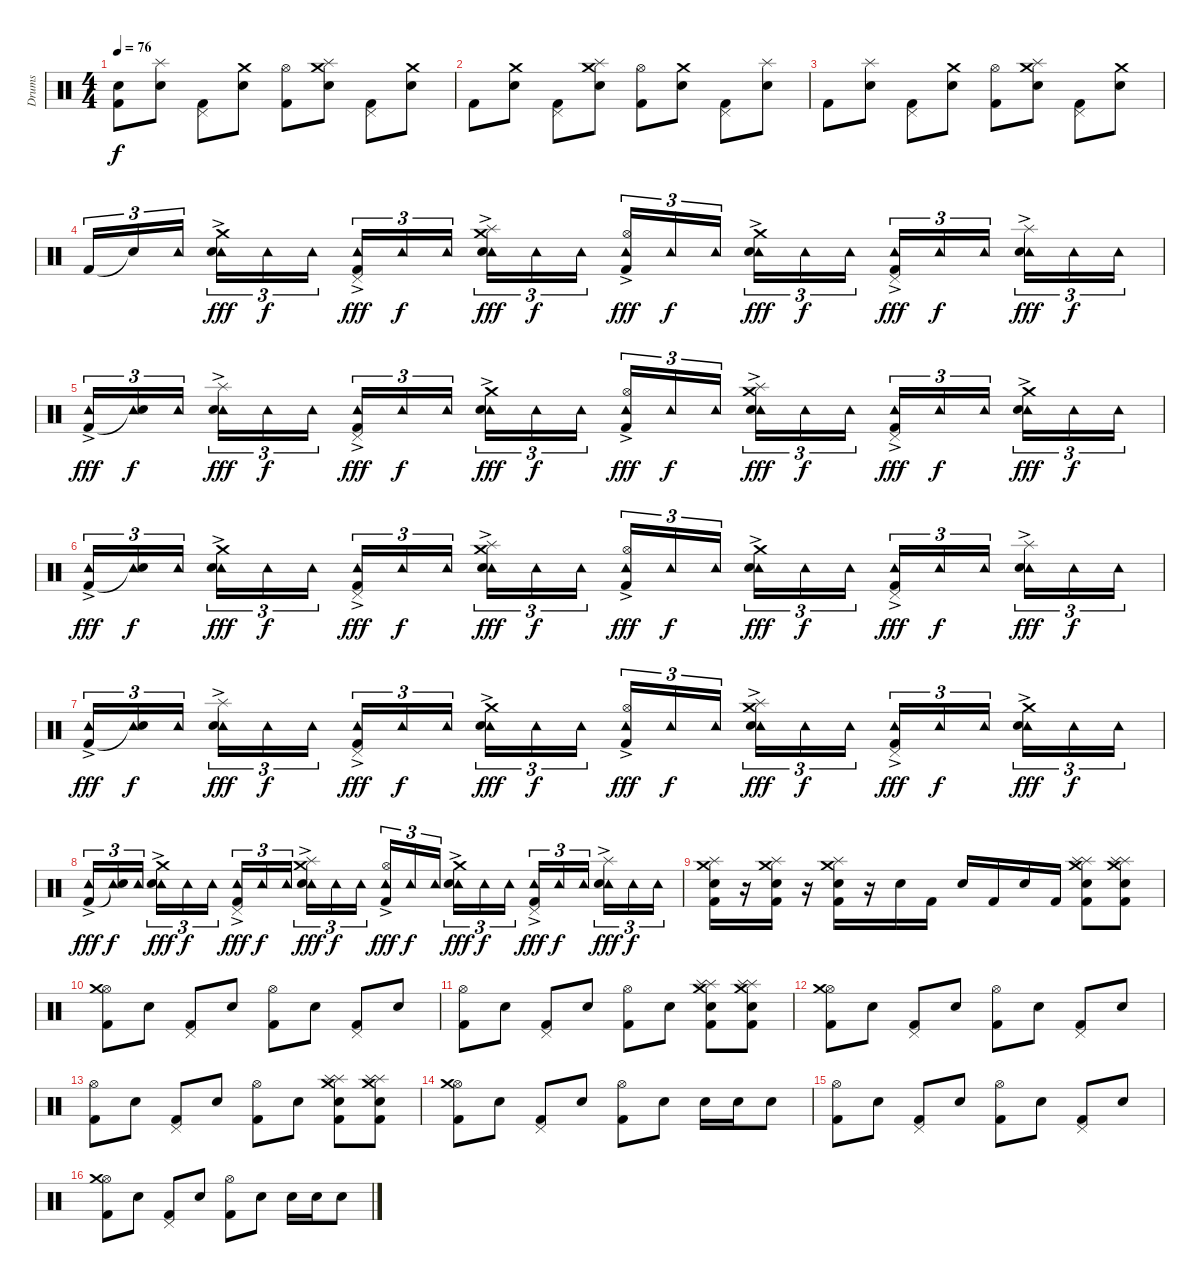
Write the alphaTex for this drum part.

\track ("Drums" "Drums") {instrument percussion}
\staff {score}
\articulation defaults
\ts (4 4)
\tempo 76
\clef neutral
\ks c
("Kick (hit) 2"{t} "Snare (hit)"{t}).8{dy f} ("Snare (hit) 2" "Splash (hit)").8 ("Kick (hit) 2" "Pedal Hi-Hat (hit)").8 ("Snare (hit) 2" "Crash medium (hit)").8 ("Kick (hit) 2" "Hi-Hat (open)").8 ("Snare (hit) 2" "Crash medium (hit)" "Splash (hit)").8 ("Kick (hit) 2" "Pedal Hi-Hat (hit)").8 ("Snare (hit) 2" "Crash medium (hit)").8 |
"Kick (hit) 2".8 ("Snare (hit) 2" "Crash medium (hit)").8 ("Kick (hit) 2" "Pedal Hi-Hat (hit)").8 ("Snare (hit) 2" "Splash (hit)" "Crash medium (hit)").8 ("Kick (hit) 2" "Hi-Hat (open)").8 ("Snare (hit) 2" "Crash medium (hit)").8 ("Kick (hit) 2" "Pedal Hi-Hat (hit)").8 ("Snare (hit) 2" "Splash (hit)").8 |
"Kick (hit) 2".8 ("Snare (hit) 2" "Splash (hit)").8 ("Kick (hit) 2" "Pedal Hi-Hat (hit)").8 ("Snare (hit) 2" "Crash medium (hit)").8 ("Kick (hit) 2" "Hi-Hat (open)").8 ("Snare (hit) 2" "Crash medium (hit)" "Splash (hit)").8 ("Kick (hit) 2" "Pedal Hi-Hat (hit)").8 ("Snare (hit) 2" "Crash medium (hit)").8 |
"Kick (hit) 2".16{tu (3 2)} "Snare (hit)"{t}.16{tu (3 2)} "Tambourine (hit)".16{tu (3 2)} ("Tambourine (hit)"{ac} "Snare (hit) 2" "Crash medium (hit)").16{tu (3 2) dy fff} "Tambourine (hit)".16{tu (3 2) dy f} "Tambourine (hit)".16{tu (3 2)} ("Tambourine (hit)"{ac} "Kick (hit) 2" "Pedal Hi-Hat (hit)").16{tu (3 2) dy fff} "Tambourine (hit)".16{tu (3 2) dy f} "Tambourine (hit)".16{tu (3 2)} ("Tambourine (hit)"{ac} "Snare (hit) 2" "Splash (hit)" "Crash medium (hit)").16{tu (3 2) dy fff} "Tambourine (hit)".16{tu (3 2) dy f} "Tambourine (hit)".16{tu (3 2)} ("Tambourine (hit)"{ac} "Kick (hit) 2" "Hi-Hat (open)").16{tu (3 2) dy fff} "Tambourine (hit)".16{tu (3 2) dy f} "Tambourine (hit)".16{tu (3 2)} ("Tambourine (hit)"{ac} "Snare (hit) 2" "Crash medium (hit)").16{tu (3 2) dy fff} "Tambourine (hit)".16{tu (3 2) dy f} "Tambourine (hit)".16{tu (3 2)} ("Tambourine (hit)"{ac} "Kick (hit) 2" "Pedal Hi-Hat (hit)").16{tu (3 2) dy fff} "Tambourine (hit)".16{tu (3 2) dy f} "Tambourine (hit)".16{tu (3 2)} ("Tambourine (hit)"{ac} "Snare (hit) 2" "Splash (hit)").16{tu (3 2) dy fff} "Tambourine (hit)".16{tu (3 2) dy f} "Tambourine (hit)".16{tu (3 2)} |
("Tambourine (hit)"{ac} "Kick (hit) 2").16{tu (3 2) dy fff} ("Tambourine (hit)" "Snare (hit)"{t}).16{tu (3 2) dy f} "Tambourine (hit)".16{tu (3 2)} ("Tambourine (hit)"{ac} "Snare (hit) 2" "Splash (hit)").16{tu (3 2) dy fff} "Tambourine (hit)".16{tu (3 2) dy f} "Tambourine (hit)".16{tu (3 2)} ("Tambourine (hit)"{ac} "Kick (hit) 2" "Pedal Hi-Hat (hit)").16{tu (3 2) dy fff} "Tambourine (hit)".16{tu (3 2) dy f} "Tambourine (hit)".16{tu (3 2)} ("Tambourine (hit)"{ac} "Snare (hit) 2" "Crash medium (hit)").16{tu (3 2) dy fff} "Tambourine (hit)".16{tu (3 2) dy f} "Tambourine (hit)".16{tu (3 2)} ("Tambourine (hit)"{ac} "Kick (hit) 2" "Hi-Hat (open)").16{tu (3 2) dy fff} "Tambourine (hit)".16{tu (3 2) dy f} "Tambourine (hit)".16{tu (3 2)} ("Tambourine (hit)"{ac} "Snare (hit) 2" "Crash medium (hit)" "Splash (hit)").16{tu (3 2) dy fff} "Tambourine (hit)".16{tu (3 2) dy f} "Tambourine (hit)".16{tu (3 2)} ("Tambourine (hit)"{ac} "Kick (hit) 2" "Pedal Hi-Hat (hit)").16{tu (3 2) dy fff} "Tambourine (hit)".16{tu (3 2) dy f} "Tambourine (hit)".16{tu (3 2)} ("Tambourine (hit)"{ac} "Snare (hit) 2" "Crash medium (hit)").16{tu (3 2) dy fff} "Tambourine (hit)".16{tu (3 2) dy f} "Tambourine (hit)".16{tu (3 2)} |
("Tambourine (hit)"{ac} "Kick (hit) 2").16{tu (3 2) dy fff} ("Tambourine (hit)" "Snare (hit)"{t}).16{tu (3 2) dy f} "Tambourine (hit)".16{tu (3 2)} ("Tambourine (hit)"{ac} "Snare (hit) 2" "Crash medium (hit)").16{tu (3 2) dy fff} "Tambourine (hit)".16{tu (3 2) dy f} "Tambourine (hit)".16{tu (3 2)} ("Tambourine (hit)"{ac} "Kick (hit) 2" "Pedal Hi-Hat (hit)").16{tu (3 2) dy fff} "Tambourine (hit)".16{tu (3 2) dy f} "Tambourine (hit)".16{tu (3 2)} ("Tambourine (hit)"{ac} "Snare (hit) 2" "Splash (hit)" "Crash medium (hit)").16{tu (3 2) dy fff} "Tambourine (hit)".16{tu (3 2) dy f} "Tambourine (hit)".16{tu (3 2)} ("Tambourine (hit)"{ac} "Kick (hit) 2" "Hi-Hat (open)").16{tu (3 2) dy fff} "Tambourine (hit)".16{tu (3 2) dy f} "Tambourine (hit)".16{tu (3 2)} ("Tambourine (hit)"{ac} "Snare (hit) 2" "Crash medium (hit)").16{tu (3 2) dy fff} "Tambourine (hit)".16{tu (3 2) dy f} "Tambourine (hit)".16{tu (3 2)} ("Tambourine (hit)"{ac} "Kick (hit) 2" "Pedal Hi-Hat (hit)").16{tu (3 2) dy fff} "Tambourine (hit)".16{tu (3 2) dy f} "Tambourine (hit)".16{tu (3 2)} ("Tambourine (hit)"{ac} "Snare (hit) 2" "Splash (hit)").16{tu (3 2) dy fff} "Tambourine (hit)".16{tu (3 2) dy f} "Tambourine (hit)".16{tu (3 2)} |
("Tambourine (hit)"{ac} "Kick (hit) 2").16{tu (3 2) dy fff} ("Tambourine (hit)" "Snare (hit)"{t}).16{tu (3 2) dy f} "Tambourine (hit)".16{tu (3 2)} ("Tambourine (hit)"{ac} "Snare (hit) 2" "Splash (hit)").16{tu (3 2) dy fff} "Tambourine (hit)".16{tu (3 2) dy f} "Tambourine (hit)".16{tu (3 2)} ("Tambourine (hit)"{ac} "Kick (hit) 2" "Pedal Hi-Hat (hit)").16{tu (3 2) dy fff} "Tambourine (hit)".16{tu (3 2) dy f} "Tambourine (hit)".16{tu (3 2)} ("Tambourine (hit)"{ac} "Snare (hit) 2" "Crash medium (hit)").16{tu (3 2) dy fff} "Tambourine (hit)".16{tu (3 2) dy f} "Tambourine (hit)".16{tu (3 2)} ("Tambourine (hit)"{ac} "Kick (hit) 2" "Hi-Hat (open)").16{tu (3 2) dy fff} "Tambourine (hit)".16{tu (3 2) dy f} "Tambourine (hit)".16{tu (3 2)} ("Tambourine (hit)"{ac} "Snare (hit) 2" "Crash medium (hit)" "Splash (hit)").16{tu (3 2) dy fff} "Tambourine (hit)".16{tu (3 2) dy f} "Tambourine (hit)".16{tu (3 2)} ("Tambourine (hit)"{ac} "Kick (hit) 2" "Pedal Hi-Hat (hit)").16{tu (3 2) dy fff} "Tambourine (hit)".16{tu (3 2) dy f} "Tambourine (hit)".16{tu (3 2)} ("Tambourine (hit)"{ac} "Snare (hit) 2" "Crash medium (hit)").16{tu (3 2) dy fff} "Tambourine (hit)".16{tu (3 2) dy f} "Tambourine (hit)".16{tu (3 2)} |
("Tambourine (hit)"{ac} "Kick (hit) 2").16{tu (3 2) dy fff} ("Tambourine (hit)" "Snare (hit)"{t}).16{tu (3 2) dy f} "Tambourine (hit)".16{tu (3 2)} ("Tambourine (hit)"{ac} "Snare (hit) 2" "Crash medium (hit)").16{tu (3 2) dy fff} "Tambourine (hit)".16{tu (3 2) dy f} "Tambourine (hit)".16{tu (3 2)} ("Tambourine (hit)"{ac} "Kick (hit) 2" "Pedal Hi-Hat (hit)").16{tu (3 2) dy fff} "Tambourine (hit)".16{tu (3 2) dy f} "Tambourine (hit)".16{tu (3 2)} ("Tambourine (hit)"{ac} "Snare (hit) 2" "Splash (hit)" "Crash medium (hit)").16{tu (3 2) dy fff} "Tambourine (hit)".16{tu (3 2) dy f} "Tambourine (hit)".16{tu (3 2)} ("Tambourine (hit)"{ac} "Kick (hit) 2" "Hi-Hat (open)").16{tu (3 2) dy fff} "Tambourine (hit)".16{tu (3 2) dy f} "Tambourine (hit)".16{tu (3 2)} ("Tambourine (hit)"{ac} "Snare (hit) 2" "Crash medium (hit)").16{tu (3 2) dy fff} "Tambourine (hit)".16{tu (3 2) dy f} "Tambourine (hit)".16{tu (3 2)} ("Tambourine (hit)"{ac} "Kick (hit) 2" "Pedal Hi-Hat (hit)").16{tu (3 2) dy fff} "Tambourine (hit)".16{tu (3 2) dy f} "Tambourine (hit)".16{tu (3 2)} ("Tambourine (hit)"{ac} "Snare (hit) 2" "Splash (hit)").16{tu (3 2) dy fff} "Tambourine (hit)".16{tu (3 2) dy f} "Tambourine (hit)".16{tu (3 2)} |
("Snare (hit) 2" "Splash (hit)" "Crash medium (hit)" "Kick (hit) 2").16 r.16 ("Snare (hit) 2" "Splash (hit)" "Crash medium (hit)" "Kick (hit) 2").16 r.16 ("Snare (hit) 2" "Splash (hit)" "Crash medium (hit)" "Kick (hit) 2").16 r.16 "Snare (hit) 2".16{volume 14} "Kick (hit) 2".16 "Snare (hit) 2".16 "Kick (hit) 2".16 "Snare (hit) 2".16 "Kick (hit) 2".16 ("Kick (hit) 2" "Snare (hit) 2" "Splash (hit)" "Splash (hit)" "Crash medium (hit)").8 ("Kick (hit) 2" "Snare (hit) 2" "Splash (hit)" "Splash (hit)" "Crash medium (hit)").8 |
("Kick (hit) 2" "Hi-Hat (open)" "Crash medium (hit)").8 "Snare (hit) 2".8 ("Kick (hit) 2" "Pedal Hi-Hat (hit)").8 "Snare (hit) 2".8 ("Kick (hit) 2" "Hi-Hat (open)").8 "Snare (hit) 2".8 ("Kick (hit) 2" "Pedal Hi-Hat (hit)").8 "Snare (hit) 2".8 |
("Kick (hit) 2" "Hi-Hat (open)").8 "Snare (hit) 2".8 ("Kick (hit) 2" "Pedal Hi-Hat (hit)").8 "Snare (hit) 2".8 ("Kick (hit) 2" "Hi-Hat (open)").8 "Snare (hit) 2".8 ("Kick (hit) 2" "Snare (hit) 2" "Splash (hit)" "Splash (hit)" "Crash medium (hit)").8 ("Kick (hit) 2" "Snare (hit) 2" "Splash (hit)" "Splash (hit)" "Crash medium (hit)").8 |
("Kick (hit) 2" "Hi-Hat (open)" "Crash medium (hit)").8 "Snare (hit) 2".8 ("Kick (hit) 2" "Pedal Hi-Hat (hit)").8 "Snare (hit) 2".8 ("Kick (hit) 2" "Hi-Hat (open)").8 "Snare (hit) 2".8 ("Kick (hit) 2" "Pedal Hi-Hat (hit)").8 "Snare (hit) 2".8 |
("Kick (hit) 2" "Hi-Hat (open)").8 "Snare (hit) 2".8 ("Kick (hit) 2" "Pedal Hi-Hat (hit)").8 "Snare (hit) 2".8 ("Kick (hit) 2" "Hi-Hat (open)").8 "Snare (hit) 2".8 ("Kick (hit) 2" "Snare (hit) 2" "Splash (hit)" "Splash (hit)" "Crash medium (hit)").8 ("Kick (hit) 2" "Snare (hit) 2" "Splash (hit)" "Splash (hit)" "Crash medium (hit)").8 |
("Kick (hit) 2" "Hi-Hat (open)" "Crash medium (hit)").8 "Snare (hit) 2".8 ("Kick (hit) 2" "Pedal Hi-Hat (hit)").8 "Snare (hit) 2".8 ("Kick (hit) 2" "Hi-Hat (open)").8 "Snare (hit) 2".8 "Snare (hit) 2".16 "Snare (hit) 2".16 "Snare (hit) 2".8 |
("Kick (hit) 2" "Hi-Hat (open)").8 "Snare (hit) 2".8 ("Kick (hit) 2" "Pedal Hi-Hat (hit)").8 "Snare (hit) 2".8 ("Kick (hit) 2" "Hi-Hat (open)").8 "Snare (hit) 2".8 ("Kick (hit) 2" "Pedal Hi-Hat (hit)").8 "Snare (hit) 2".8 |
("Kick (hit) 2" "Hi-Hat (open)" "Crash medium (hit)").8 "Snare (hit) 2".8 ("Kick (hit) 2" "Pedal Hi-Hat (hit)").8 "Snare (hit) 2".8 ("Kick (hit) 2" "Hi-Hat (open)").8 "Snare (hit) 2".8 "Snare (hit) 2".16 "Snare (hit) 2".16 "Snare (hit) 2".8
